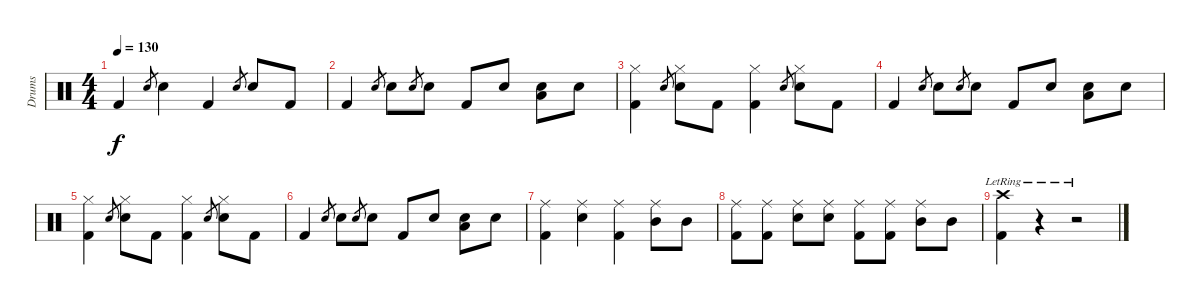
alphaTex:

\track ("Drums" "Drums") {instrument percussion}
\staff {score}
\articulation defaults
\ts (4 4)
\tempo 130
\clef neutral
\ks c "Kick (hit) 2".4{dy f} "Snare (hit) 2".8{gr} "Snare (hit) 2".4 "Kick (hit) 2".4 "Snare (hit) 2".8{gr} "Snare (hit) 2".8 "Kick (hit) 2".8
|
"Kick (hit) 2".4 "Snare (hit) 2".8{gr} "Snare (hit) 2".8 "Snare (hit) 2".8{gr} "Snare (hit) 2".8 "Kick (hit) 2".8 "Snare (hit) 2".8 ("Low Tom (hit)" "Snare (hit) 2").8 "Snare (hit) 2".8 |
("Hi-Hat (closed)" "Kick (hit) 2").4 "Snare (hit) 2".8{gr} ("Hi-Hat (closed)" "Snare (hit) 2").8 "Kick (hit) 2".8 ("Hi-Hat (closed)" "Kick (hit) 2").4 "Snare (hit) 2".8{gr} ("Hi-Hat (closed)" "Snare (hit) 2").8 "Kick (hit) 2".8 |
"Kick (hit) 2".4 "Snare (hit) 2".8{gr} "Snare (hit) 2".8 "Snare (hit) 2".8{gr} "Snare (hit) 2".8 "Kick (hit) 2".8 "Snare (hit) 2".8 ("Low Tom (hit)" "Snare (hit) 2").8 "Snare (hit) 2".8 |
("Hi-Hat (closed)" "Kick (hit) 2").4 "Snare (hit) 2".8{gr} ("Hi-Hat (closed)" "Snare (hit) 2").8 "Kick (hit) 2".8 ("Hi-Hat (closed)" "Kick (hit) 2").4 "Snare (hit) 2".8{gr} ("Hi-Hat (closed)" "Snare (hit) 2").8 "Kick (hit) 2".8 |
"Kick (hit) 2".4 "Snare (hit) 2".8{gr} "Snare (hit) 2".8 "Snare (hit) 2".8{gr} "Snare (hit) 2".8 "Kick (hit) 2".8 "Snare (hit) 2".8 ("Low Tom (hit)" "Snare (hit) 2").8 "Snare (hit) 2".8 |
("Ride (middle)" "Kick (hit) 2").4 ("Ride (middle)" "Snare (hit) 2").4 ("Ride (middle)" "Kick (hit) 2").4 ("Ride (middle)" "Mid Tom (hit)").8 "Mid Tom (hit)".8 |
("Ride (middle)" "Kick (hit) 2").8 ("Ride (middle)" "Kick (hit) 2").8 ("Ride (middle)" "Snare (hit) 2").8 ("Ride (middle)" "Snare (hit) 2").8 ("Ride (middle)" "Kick (hit) 2").8 ("Ride (middle)" "Kick (hit) 2").8 ("Ride (middle)" "Mid Tom (hit)").8 "Mid Tom (hit)".8 |
("Crash high (hit)"{lr} "Kick (hit) 2"{lr}).4 r.4 r.2
